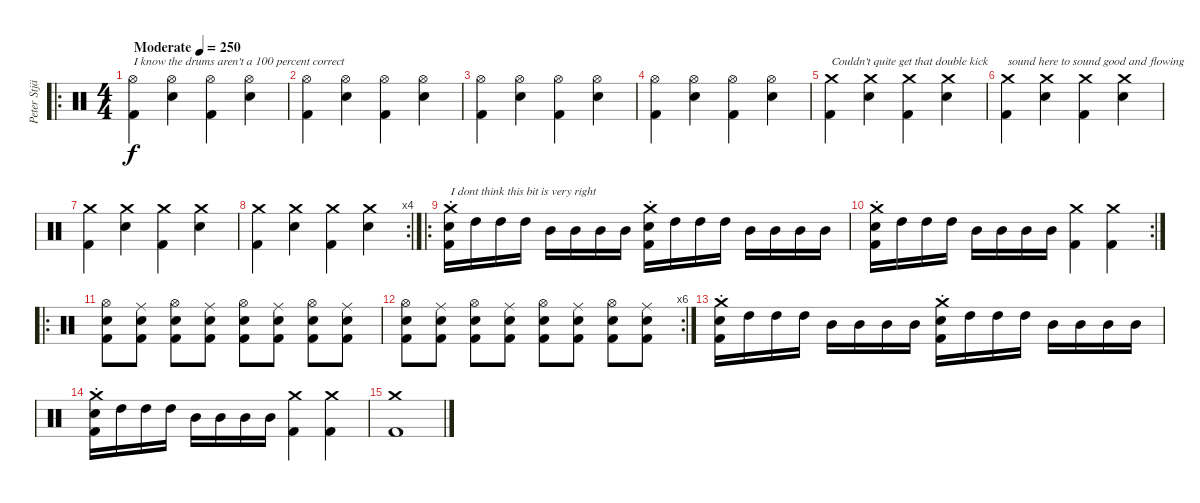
\track ("Peter Stjärnvind" "Peter Stjä") {instrument percussion}
\staff {score}
\articulation defaults
\ro
\ts (4 4)
\tempo (250 "Moderate")
\clef neutral
\ks c
("Hi-Hat (open)" "Kick (hit) 2").4{txt "I know the drums aren't a 100 percent correct" dy f} ("Hi-Hat (open)" "Electric Snare (hit)").4 ("Hi-Hat (open)" "Kick (hit) 2").4 ("Hi-Hat (open)" "Electric Snare (hit)").4 |
("Hi-Hat (open)" "Kick (hit) 2").4 ("Hi-Hat (open)" "Electric Snare (hit)").4 ("Hi-Hat (open)" "Kick (hit) 2").4 ("Hi-Hat (open)" "Electric Snare (hit)").4 |
("Hi-Hat (open)" "Kick (hit) 2").4 ("Hi-Hat (open)" "Electric Snare (hit)").4 ("Hi-Hat (open)" "Kick (hit) 2").4 ("Hi-Hat (open)" "Electric Snare (hit)").4 |
("Hi-Hat (open)" "Kick (hit) 2").4 ("Hi-Hat (open)" "Electric Snare (hit)").4 ("Hi-Hat (open)" "Kick (hit) 2").4 ("Hi-Hat (open)" "Electric Snare (hit)").4 |
("Crash medium (hit)" "Kick (hit) 2").4{txt "Couldn't quite get that double kick"} ("Crash medium (hit)" "Electric Snare (hit)").4 ("Crash medium (hit)" "Kick (hit) 2").4 ("Crash medium (hit)" "Electric Snare (hit)").4 |
("Crash medium (hit)" "Kick (hit) 2").4{txt "sound here to sound good and flowing"} ("Crash medium (hit)" "Electric Snare (hit)").4 ("Crash medium (hit)" "Kick (hit) 2").4 ("Crash medium (hit)" "Electric Snare (hit)").4 |
("Crash medium (hit)" "Kick (hit) 2").4 ("Crash medium (hit)" "Electric Snare (hit)").4 ("Crash medium (hit)" "Kick (hit) 2").4 ("Crash medium (hit)" "Electric Snare (hit)").4 |
\rc 4
("Crash medium (hit)" "Kick (hit) 2").4 ("Crash medium (hit)" "Electric Snare (hit)").4 ("Crash medium (hit)" "Kick (hit) 2").4 ("Crash medium (hit)" "Electric Snare (hit)").4 |
\ro
("Crash medium (hit)"{st} "Electric Snare (hit)"{st} "Kick (hit) 2"{st}).16{txt "I dont think this bit is very right"} "High Tom (hit)".16 "High Tom (hit)".16 "High Tom (hit)".16 "Mid Tom (hit)".16 "Mid Tom (hit)".16 "Mid Tom (hit)".16 "Mid Tom (hit)".16 ("Crash medium (hit)"{st} "Electric Snare (hit)"{st} "Kick (hit) 2"{st}).16 "High Tom (hit)".16 "High Tom (hit)".16 "High Tom (hit)".16 "Mid Tom (hit)".16 "Mid Tom (hit)".16 "Mid Tom (hit)".16 "Mid Tom (hit)".16 |
\rc 2
("Crash medium (hit)"{st} "Electric Snare (hit)"{st} "Kick (hit) 2"{st}).16 "High Tom (hit)".16 "High Tom (hit)".16 "High Tom (hit)".16 "Mid Tom (hit)".16 "Mid Tom (hit)".16 "Mid Tom (hit)".16 "Mid Tom (hit)".16 ("Crash medium (hit)" "Kick (hit) 2").4 ("Crash medium (hit)" "Kick (hit) 2").4 |
\ro
("Hi-Hat (open)" "Electric Snare (hit)" "Kick (hit) 2").8 ("Ride (middle)" "Electric Snare (hit)" "Kick (hit) 2").8 ("Hi-Hat (open)" "Electric Snare (hit)" "Kick (hit) 2").8 ("Ride (middle)" "Electric Snare (hit)" "Kick (hit) 2").8 ("Hi-Hat (open)" "Electric Snare (hit)" "Kick (hit) 2").8 ("Ride (middle)" "Electric Snare (hit)" "Kick (hit) 2").8 ("Hi-Hat (open)" "Electric Snare (hit)" "Kick (hit) 2").8 ("Ride (middle)" "Electric Snare (hit)" "Kick (hit) 2").8 |
\rc 6
("Hi-Hat (open)" "Electric Snare (hit)" "Kick (hit) 2").8 ("Ride (middle)" "Electric Snare (hit)" "Kick (hit) 2").8 ("Hi-Hat (open)" "Electric Snare (hit)" "Kick (hit) 2").8 ("Ride (middle)" "Electric Snare (hit)" "Kick (hit) 2").8 ("Hi-Hat (open)" "Electric Snare (hit)" "Kick (hit) 2").8 ("Ride (middle)" "Electric Snare (hit)" "Kick (hit) 2").8 ("Hi-Hat (open)" "Electric Snare (hit)" "Kick (hit) 2").8 ("Ride (middle)" "Electric Snare (hit)" "Kick (hit) 2").8 |
("Crash medium (hit)"{st} "Electric Snare (hit)"{st} "Kick (hit) 2"{st}).16 "High Tom (hit)".16 "High Tom (hit)".16 "High Tom (hit)".16 "Mid Tom (hit)".16 "Mid Tom (hit)".16 "Mid Tom (hit)".16 "Mid Tom (hit)".16 ("Crash medium (hit)"{st} "Electric Snare (hit)"{st} "Kick (hit) 2"{st}).16 "High Tom (hit)".16 "High Tom (hit)".16 "High Tom (hit)".16 "Mid Tom (hit)".16 "Mid Tom (hit)".16 "Mid Tom (hit)".16 "Mid Tom (hit)".16 |
("Crash medium (hit)"{st} "Electric Snare (hit)"{st} "Kick (hit) 2"{st}).16 "High Tom (hit)".16 "High Tom (hit)".16 "High Tom (hit)".16 "Mid Tom (hit)".16 "Mid Tom (hit)".16 "Mid Tom (hit)".16 "Mid Tom (hit)".16 ("Crash medium (hit)" "Kick (hit) 2").4 ("Crash medium (hit)" "Kick (hit) 2").4 |
("Crash medium (hit)" "Kick (hit) 2").1
